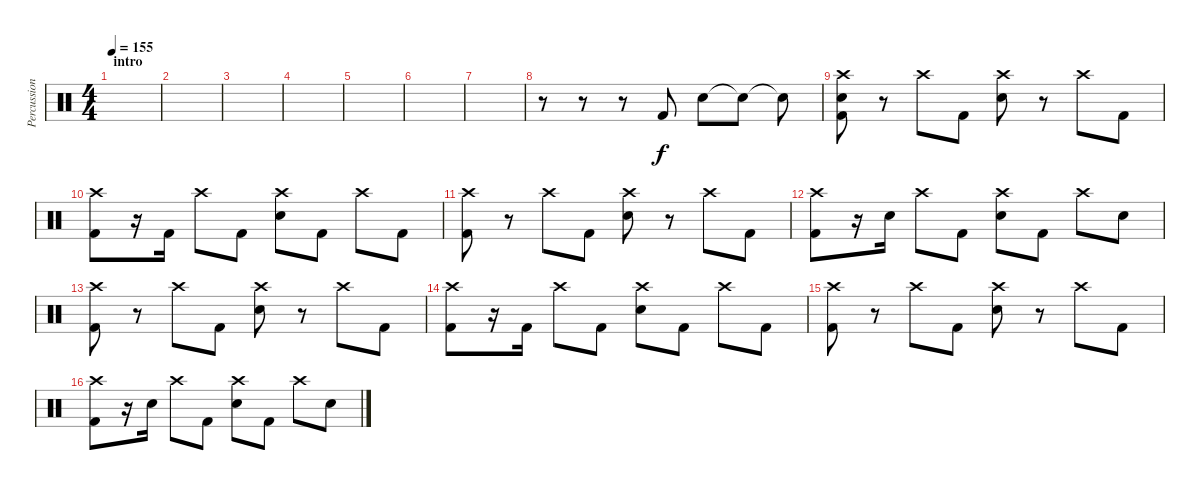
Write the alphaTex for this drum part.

\track ("Percussion" "Percussion") {instrument percussion}
\staff {score}
\articulation defaults
\ts (4 4)
\section ("" "intro")
\tempo 155
\clef neutral
\ks c
|
|
|
|
|
|
|
r.8 r.8 r.8 "Kick (hit) 2".8 "Snare (hit) 2".8 "Snare (hit)"{t}.8 "Snare (hit)"{t}.8 |
("Crash high (hit)" "Snare (hit) 2" "Kick (hit) 2").8 r.8 "Crash high (hit)".8 "Kick (hit) 2".8 ("Crash high (hit)" "Electric Snare (hit)").8 r.8 "Crash high (hit)".8 "Kick (hit) 2".8 |
("Crash high (hit)" "Kick (hit) 2").8 r.16 "Kick (hit) 2".16 "Crash high (hit)".8 "Kick (hit) 2".8 ("Crash high (hit)" "Snare (hit) 2").8 "Kick (hit) 2".8 "Crash high (hit)".8 "Kick (hit) 2".8 |
("Crash high (hit)" "Kick (hit) 2").8 r.8 "Crash high (hit)".8 "Kick (hit) 2".8 ("Crash high (hit)" "Electric Snare (hit)").8 r.8 "Crash high (hit)".8 "Kick (hit) 2".8 |
("Crash high (hit)" "Kick (hit) 2").8 r.16 "Snare (hit) 2".16 "Crash high (hit)".8 "Kick (hit) 2".8 ("Crash high (hit)" "Snare (hit) 2").8 "Kick (hit) 2".8 "Crash high (hit)".8 "Snare (hit) 2".8 |
("Crash high (hit)" "Kick (hit) 2").8 r.8 "Crash high (hit)".8 "Kick (hit) 2".8 ("Crash high (hit)" "Electric Snare (hit)").8 r.8 "Crash high (hit)".8 "Kick (hit) 2".8 |
("Crash high (hit)" "Kick (hit) 2").8 r.16 "Kick (hit) 2".16 "Crash high (hit)".8 "Kick (hit) 2".8 ("Crash high (hit)" "Snare (hit) 2").8 "Kick (hit) 2".8 "Crash high (hit)".8 "Kick (hit) 2".8 |
("Crash high (hit)" "Kick (hit) 2").8 r.8 "Crash high (hit)".8 "Kick (hit) 2".8 ("Crash high (hit)" "Electric Snare (hit)").8 r.8 "Crash high (hit)".8 "Kick (hit) 2".8 |
("Crash high (hit)" "Kick (hit) 2").8 r.16 "Snare (hit) 2".16 "Crash high (hit)".8 "Kick (hit) 2".8 ("Crash high (hit)" "Snare (hit) 2").8 "Kick (hit) 2".8 "Crash high (hit)".8 "Snare (hit) 2".8
